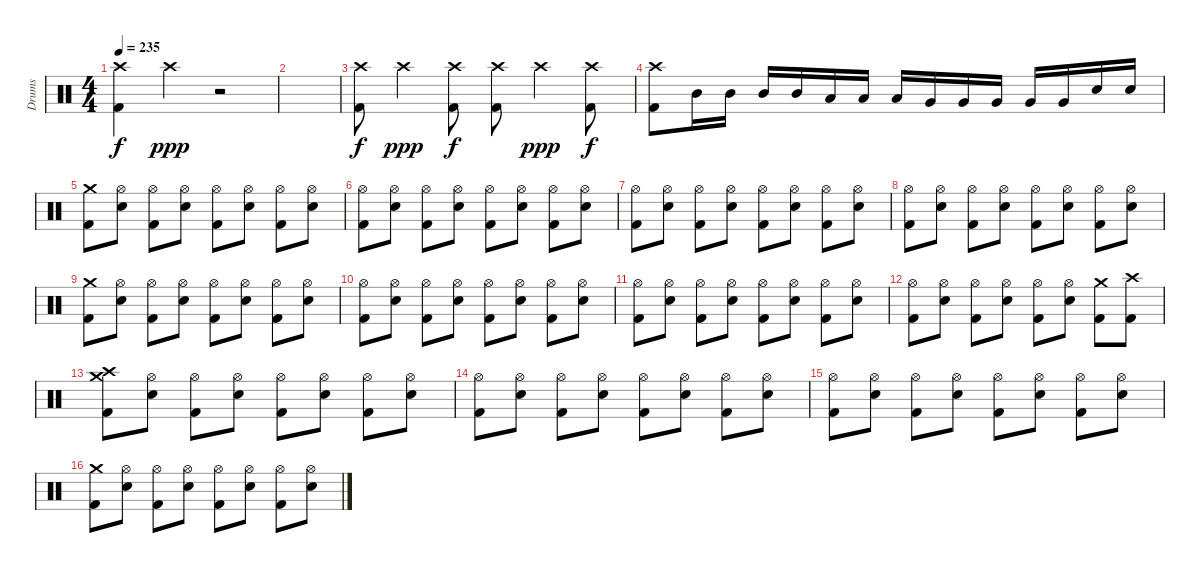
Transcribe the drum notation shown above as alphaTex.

\track ("Drums" "Drums") {instrument percussion}
\staff {score}
\articulation defaults
\ts (4 4)
\tempo 235
\tempo 230
\tempo 235
\clef neutral
\ks c
("Kick (hit) 2" "Crash high (hit)").4{dy f} "Crash high (hit)".4{dy ppp} r.2 |
|
("Kick (hit) 2" "Crash high (hit)").8{dy f} "Crash high (hit)".4{dy ppp} ("Kick (hit) 2" "Crash high (hit)").8{dy f} ("Kick (hit) 2" "Crash high (hit)").8 "Crash high (hit)".4{dy ppp} ("Kick (hit) 2" "Crash high (hit)").8{dy f} |
("Crash high (hit)" "Kick (hit) 2").8 "Mid Tom (hit)".16 "Mid Tom (hit)".16 "Mid Tom (hit)".16 "Mid Tom (hit)".16 "Low Tom (hit)".16 "Low Tom (hit)".16 "Low Tom (hit)".16 "Very Low Tom (hit)".16 "Very Low Tom (hit)".16 "Very Low Tom (hit)".16 "Very Low Tom (hit)".16 "Very Low Tom (hit)".16 "Electric Snare (hit)".16 "Electric Snare (hit)".16 |
("Kick (hit) 2" "Crash medium (hit)").8 ("Hi-Hat (open)" "Electric Snare (hit)").8 ("Hi-Hat (open)" "Kick (hit) 2").8 ("Hi-Hat (open)" "Electric Snare (hit)").8 ("Hi-Hat (open)" "Kick (hit) 2").8 ("Hi-Hat (open)" "Electric Snare (hit)").8 ("Hi-Hat (open)" "Kick (hit) 2").8 ("Hi-Hat (open)" "Electric Snare (hit)").8 |
("Kick (hit) 2" "Hi-Hat (open)").8 ("Hi-Hat (open)" "Electric Snare (hit)").8 ("Hi-Hat (open)" "Kick (hit) 2").8 ("Hi-Hat (open)" "Electric Snare (hit)").8 ("Hi-Hat (open)" "Kick (hit) 2").8 ("Hi-Hat (open)" "Electric Snare (hit)").8 ("Hi-Hat (open)" "Kick (hit) 2").8 ("Hi-Hat (open)" "Electric Snare (hit)").8 |
("Kick (hit) 2" "Hi-Hat (open)").8 ("Hi-Hat (open)" "Electric Snare (hit)").8 ("Hi-Hat (open)" "Kick (hit) 2").8 ("Hi-Hat (open)" "Electric Snare (hit)").8 ("Hi-Hat (open)" "Kick (hit) 2").8 ("Hi-Hat (open)" "Electric Snare (hit)").8 ("Hi-Hat (open)" "Kick (hit) 2").8 ("Hi-Hat (open)" "Electric Snare (hit)").8 |
("Kick (hit) 2" "Hi-Hat (open)").8 ("Hi-Hat (open)" "Electric Snare (hit)").8 ("Hi-Hat (open)" "Kick (hit) 2").8 ("Hi-Hat (open)" "Electric Snare (hit)").8 ("Hi-Hat (open)" "Kick (hit) 2").8 ("Hi-Hat (open)" "Electric Snare (hit)").8 ("Hi-Hat (open)" "Kick (hit) 2").8 ("Hi-Hat (open)" "Electric Snare (hit)").8 |
("Kick (hit) 2" "Crash medium (hit)").8 ("Hi-Hat (open)" "Electric Snare (hit)").8 ("Hi-Hat (open)" "Kick (hit) 2").8 ("Hi-Hat (open)" "Electric Snare (hit)").8 ("Hi-Hat (open)" "Kick (hit) 2").8 ("Hi-Hat (open)" "Electric Snare (hit)").8 ("Hi-Hat (open)" "Kick (hit) 2").8 ("Hi-Hat (open)" "Electric Snare (hit)").8 |
("Kick (hit) 2" "Hi-Hat (open)").8 ("Hi-Hat (open)" "Electric Snare (hit)").8 ("Hi-Hat (open)" "Kick (hit) 2").8 ("Hi-Hat (open)" "Electric Snare (hit)").8 ("Hi-Hat (open)" "Kick (hit) 2").8 ("Hi-Hat (open)" "Electric Snare (hit)").8 ("Hi-Hat (open)" "Kick (hit) 2").8 ("Hi-Hat (open)" "Electric Snare (hit)").8 |
("Kick (hit) 2" "Hi-Hat (open)").8 ("Hi-Hat (open)" "Electric Snare (hit)").8 ("Hi-Hat (open)" "Kick (hit) 2").8 ("Hi-Hat (open)" "Electric Snare (hit)").8 ("Hi-Hat (open)" "Kick (hit) 2").8 ("Hi-Hat (open)" "Electric Snare (hit)").8 ("Hi-Hat (open)" "Kick (hit) 2").8 ("Hi-Hat (open)" "Electric Snare (hit)").8 |
("Kick (hit) 2" "Hi-Hat (open)").8 ("Hi-Hat (open)" "Electric Snare (hit)").8 ("Hi-Hat (open)" "Kick (hit) 2").8 ("Hi-Hat (open)" "Electric Snare (hit)").8 ("Hi-Hat (open)" "Kick (hit) 2").8 ("Hi-Hat (open)" "Electric Snare (hit)").8 ("Crash medium (hit)" "Kick (hit) 2").8 ("Kick (hit) 2" "Crash high (hit)").8 |
("Kick (hit) 2" "Crash medium (hit)" "Crash high (hit)").8 ("Hi-Hat (open)" "Electric Snare (hit)").8 ("Hi-Hat (open)" "Kick (hit) 2").8 ("Hi-Hat (open)" "Electric Snare (hit)").8 ("Hi-Hat (open)" "Kick (hit) 2").8 ("Hi-Hat (open)" "Electric Snare (hit)").8 ("Hi-Hat (open)" "Kick (hit) 2").8 ("Hi-Hat (open)" "Electric Snare (hit)").8 |
("Kick (hit) 2" "Hi-Hat (open)").8 ("Hi-Hat (open)" "Electric Snare (hit)").8 ("Hi-Hat (open)" "Kick (hit) 2").8 ("Hi-Hat (open)" "Electric Snare (hit)").8 ("Hi-Hat (open)" "Kick (hit) 2").8 ("Hi-Hat (open)" "Electric Snare (hit)").8 ("Hi-Hat (open)" "Kick (hit) 2").8 ("Hi-Hat (open)" "Electric Snare (hit)").8 |
("Kick (hit) 2" "Hi-Hat (open)").8 ("Hi-Hat (open)" "Electric Snare (hit)").8 ("Hi-Hat (open)" "Kick (hit) 2").8 ("Hi-Hat (open)" "Electric Snare (hit)").8 ("Hi-Hat (open)" "Kick (hit) 2").8 ("Hi-Hat (open)" "Electric Snare (hit)").8 ("Hi-Hat (open)" "Kick (hit) 2").8 ("Hi-Hat (open)" "Electric Snare (hit)").8 |
("Kick (hit) 2" "Crash medium (hit)").8 ("Hi-Hat (open)" "Electric Snare (hit)").8 ("Hi-Hat (open)" "Kick (hit) 2").8 ("Hi-Hat (open)" "Electric Snare (hit)").8 ("Hi-Hat (open)" "Kick (hit) 2").8 ("Hi-Hat (open)" "Electric Snare (hit)").8 ("Hi-Hat (open)" "Kick (hit) 2").8 ("Hi-Hat (open)" "Electric Snare (hit)").8
